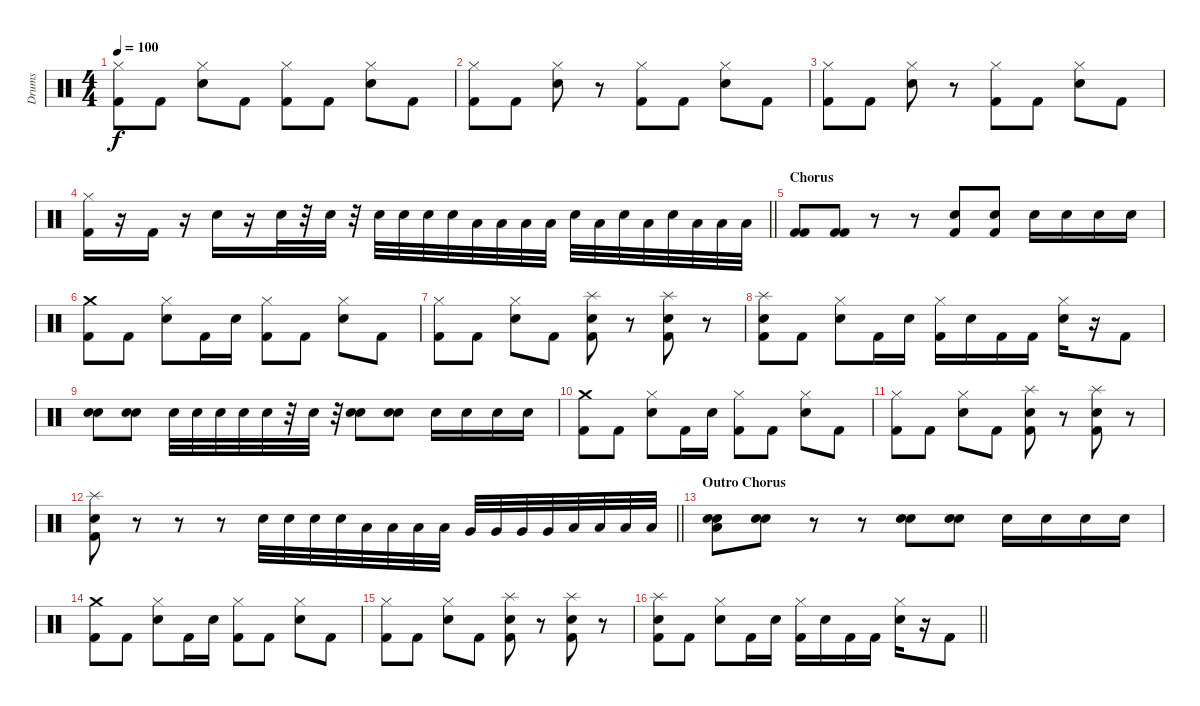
\track ("Drums" "Drums") {instrument percussion}
\staff {score}
\articulation defaults
\ts (4 4)
\tempo 100
\clef neutral
\ks c
("Hi-Hat (closed)" "Kick (hit) 2").8{dy f} "Kick (hit) 2".8 ("Hi-Hat (closed)" "Snare (hit) 2").8 "Kick (hit) 2".8 ("Hi-Hat (closed)" "Kick (hit) 2").8 "Kick (hit) 2".8 ("Hi-Hat (closed)" "Snare (hit) 2").8 "Kick (hit) 2".8 |
("Hi-Hat (closed)" "Kick (hit) 2").8 "Kick (hit) 2".8 ("Hi-Hat (closed)" "Snare (hit) 2").8 r.8 ("Hi-Hat (closed)" "Kick (hit) 2").8 "Kick (hit) 2".8 ("Hi-Hat (closed)" "Snare (hit) 2").8 "Kick (hit) 2".8 |
("Hi-Hat (closed)" "Kick (hit) 2").8 "Kick (hit) 2".8 ("Hi-Hat (closed)" "Snare (hit) 2").8 r.8 ("Hi-Hat (closed)" "Kick (hit) 2").8 "Kick (hit) 2".8 ("Hi-Hat (closed)" "Snare (hit) 2").8 "Kick (hit) 2".8 |
\barLineRight lightlight
("Hi-Hat (closed)" "Kick (hit) 2").16 r.16 "Kick (hit) 2".16 r.16 "Snare (hit) 2".16 r.16 "Snare (hit) 2".32 r.32 "Snare (hit) 2".32 r.32 "Snare (hit) 2".32 "Snare (hit) 2".32 "Snare (hit) 2".32 "Snare (hit) 2".32 "Low Tom (hit)".32 "Low Tom (hit)".32 "Low Tom (hit)".32 "Low Tom (hit)".32 "Snare (hit) 2".32 "Low Tom (hit)".32 "Snare (hit) 2".32 "Low Tom (hit)".32 "Snare (hit) 2".32 "Low Tom (hit)".32 "Low Tom (hit)".32 "Low Tom (hit)".32 |
\section ("" "Chorus")
("Kick (hit) 2" "Kick (hit) 2").8 ("Kick (hit) 2" "Kick (hit) 2").8 r.8 r.8 ("Snare (hit) 2" "Kick (hit) 2").8 ("Snare (hit) 2" "Kick (hit) 2").8 "Snare (hit) 2".16 "Snare (hit) 2".16 "Snare (hit) 2".16 "Snare (hit) 2".16 |
("Crash medium (hit)" "Kick (hit) 2").8 "Kick (hit) 2".8 ("Hi-Hat (closed)" "Snare (hit) 2").8 "Kick (hit) 2".16 "Snare (hit) 2".16 ("Hi-Hat (closed)" "Kick (hit) 2").8 "Kick (hit) 2".8 ("Hi-Hat (closed)" "Snare (hit) 2").8 "Kick (hit) 2".8 |
("Hi-Hat (closed)" "Kick (hit) 2").8 "Kick (hit) 2".8 ("Hi-Hat (closed)" "Snare (hit) 2").8 "Kick (hit) 2".8 ("Splash (hit)" "Snare (hit) 2" "Kick (hit) 2").8 r.8 ("Splash (hit)" "Snare (hit) 2" "Kick (hit) 2").8 r.8 |
("Splash (hit)" "Snare (hit) 2" "Kick (hit) 2").8 "Kick (hit) 2".8 ("Hi-Hat (closed)" "Snare (hit) 2").8 "Kick (hit) 2".16 "Snare (hit) 2".16 ("Hi-Hat (closed)" "Kick (hit) 2").16 "Snare (hit) 2".16 "Kick (hit) 2".16 "Kick (hit) 2".16 ("Hi-Hat (closed)" "Snare (hit) 2").16 r.16 "Kick (hit) 2".8 |
("Snare (hit) 2" "Snare (hit) 2").8 ("Snare (hit) 2" "Snare (hit) 2").8 "Snare (hit) 2".32 "Snare (hit) 2".32 "Snare (hit) 2".32 "Snare (hit) 2".32 "Snare (hit) 2".32 r.32 "Snare (hit) 2".32 r.32 ("Snare (hit) 2" "Snare (hit) 2").8 ("Snare (hit) 2" "Snare (hit) 2").8 "Snare (hit) 2".16 "Snare (hit) 2".16 "Snare (hit) 2".16 "Snare (hit) 2".16 |
("Crash medium (hit)" "Kick (hit) 2").8 "Kick (hit) 2".8 ("Hi-Hat (closed)" "Snare (hit) 2").8 "Kick (hit) 2".16 "Snare (hit) 2".16 ("Hi-Hat (closed)" "Kick (hit) 2").8 "Kick (hit) 2".8 ("Hi-Hat (closed)" "Snare (hit) 2").8 "Kick (hit) 2".8 |
("Hi-Hat (closed)" "Kick (hit) 2").8 "Kick (hit) 2".8 ("Hi-Hat (closed)" "Snare (hit) 2").8 "Kick (hit) 2".8 ("Splash (hit)" "Snare (hit) 2" "Kick (hit) 2").8 r.8 ("Splash (hit)" "Snare (hit) 2" "Kick (hit) 2").8 r.8 |
\barLineRight lightlight
("Splash (hit)" "Snare (hit) 2" "Kick (hit) 2").8 r.8 r.8 r.8 "Snare (hit) 2".32 "Snare (hit) 2".32 "Snare (hit) 2".32 "Snare (hit) 2".32 "Low Tom (hit)".32 "Low Tom (hit)".32 "Low Tom (hit)".32 "Low Tom (hit)".32 "Very Low Tom (hit)".32 "Very Low Tom (hit)".32 "Very Low Tom (hit)".32 "Very Low Tom (hit)".32 "Low Floor Tom (hit)".32 "Low Floor Tom (hit)".32 "Low Floor Tom (hit)".32 "Low Floor Tom (hit)".32 |
\section ("" "Outro Chorus")
("Snare (hit) 2" "Snare (hit) 2" "Low Floor Tom (hit)").8 ("Snare (hit) 2" "Snare (hit) 2").8 r.8 r.8 ("Snare (hit) 2" "Snare (hit) 2").8 ("Snare (hit) 2" "Snare (hit) 2").8 "Snare (hit) 2".16 "Snare (hit) 2".16 "Snare (hit) 2".16 "Snare (hit) 2".16 |
("Crash medium (hit)" "Kick (hit) 2").8 "Kick (hit) 2".8 ("Hi-Hat (closed)" "Snare (hit) 2").8 "Kick (hit) 2".16 "Snare (hit) 2".16 ("Hi-Hat (closed)" "Kick (hit) 2").8 "Kick (hit) 2".8 ("Hi-Hat (closed)" "Snare (hit) 2").8 "Kick (hit) 2".8 |
("Hi-Hat (closed)" "Kick (hit) 2").8 "Kick (hit) 2".8 ("Hi-Hat (closed)" "Snare (hit) 2").8 "Kick (hit) 2".8 ("Splash (hit)" "Snare (hit) 2" "Kick (hit) 2").8 r.8 ("Splash (hit)" "Snare (hit) 2" "Kick (hit) 2").8 r.8 |
\barLineRight lightlight
("Splash (hit)" "Snare (hit) 2" "Kick (hit) 2").8 "Kick (hit) 2".8 ("Hi-Hat (closed)" "Snare (hit) 2").8 "Kick (hit) 2".16 "Snare (hit) 2".16 ("Hi-Hat (closed)" "Kick (hit) 2").16 "Snare (hit) 2".16 "Kick (hit) 2".16 "Kick (hit) 2".16 ("Hi-Hat (closed)" "Snare (hit) 2").16 r.16 "Kick (hit) 2".8
